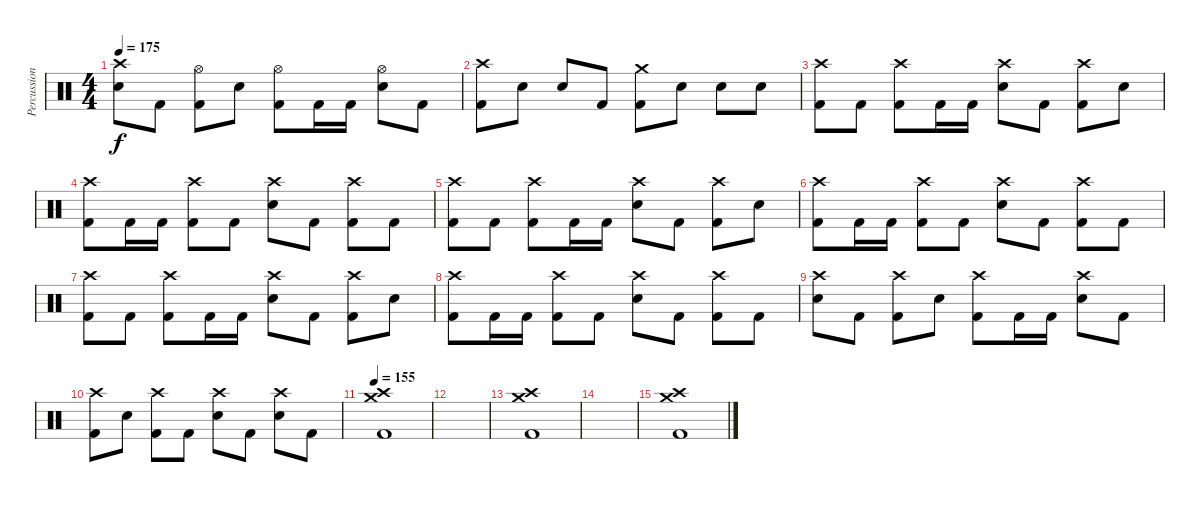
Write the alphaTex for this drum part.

\track ("Percussion" "Percussion") {instrument percussion}
\staff {score}
\articulation defaults
\ts (4 4)
\tempo 175
\clef neutral
\ks c
("Crash high (hit)" "Electric Snare (hit)").8{dy f} "Kick (hit) 2".8 ("Hi-Hat (open)" "Kick (hit) 2").8 "Electric Snare (hit)".8 ("Hi-Hat (open)" "Kick (hit) 2").8 "Kick (hit) 2".16 "Kick (hit) 2".16 ("Hi-Hat (open)" "Electric Snare (hit)").8 "Kick (hit) 2".8 |
("Crash high (hit)" "Kick (hit) 2").8 "Electric Snare (hit)".8 "Electric Snare (hit)".8 "Kick (hit) 2".8 ("Crash medium (hit)" "Kick (hit) 2").8 "Electric Snare (hit)".8 "Electric Snare (hit)".8 "Electric Snare (hit)".8 |
("Crash high (hit)" "Kick (hit) 2").8 "Kick (hit) 2".8 ("Crash high (hit)" "Kick (hit) 2").8 "Kick (hit) 2".16 "Kick (hit) 2".16 ("Crash high (hit)" "Electric Snare (hit)").8 "Kick (hit) 2".8 ("Crash high (hit)" "Kick (hit) 2").8 "Electric Snare (hit)".8 |
("Crash high (hit)" "Kick (hit) 2").8 "Kick (hit) 2".16 "Kick (hit) 2".16 ("Crash high (hit)" "Kick (hit) 2").8 "Kick (hit) 2".8 ("Crash high (hit)" "Electric Snare (hit)").8 "Kick (hit) 2".8 ("Crash high (hit)" "Kick (hit) 2").8 "Kick (hit) 2".8 |
("Crash high (hit)" "Kick (hit) 2").8 "Kick (hit) 2".8 ("Crash high (hit)" "Kick (hit) 2").8 "Kick (hit) 2".16 "Kick (hit) 2".16 ("Crash high (hit)" "Electric Snare (hit)").8 "Kick (hit) 2".8 ("Crash high (hit)" "Kick (hit) 2").8 "Electric Snare (hit)".8 |
("Crash high (hit)" "Kick (hit) 2").8 "Kick (hit) 2".16 "Kick (hit) 2".16 ("Crash high (hit)" "Kick (hit) 2").8 "Kick (hit) 2".8 ("Crash high (hit)" "Electric Snare (hit)").8 "Kick (hit) 2".8 ("Crash high (hit)" "Kick (hit) 2").8 "Kick (hit) 2".8 |
("Crash high (hit)" "Kick (hit) 2").8 "Kick (hit) 2".8 ("Crash high (hit)" "Kick (hit) 2").8 "Kick (hit) 2".16 "Kick (hit) 2".16 ("Crash high (hit)" "Electric Snare (hit)").8 "Kick (hit) 2".8 ("Crash high (hit)" "Kick (hit) 2").8 "Electric Snare (hit)".8 |
("Crash high (hit)" "Kick (hit) 2").8 "Kick (hit) 2".16 "Kick (hit) 2".16 ("Crash high (hit)" "Kick (hit) 2").8 "Kick (hit) 2".8 ("Crash high (hit)" "Electric Snare (hit)").8 "Kick (hit) 2".8 ("Crash high (hit)" "Kick (hit) 2").8 "Kick (hit) 2".8 |
("Crash high (hit)" "Electric Snare (hit)").8 "Kick (hit) 2".8 ("Crash high (hit)" "Kick (hit) 2").8 "Electric Snare (hit)".8 ("Crash high (hit)" "Kick (hit) 2").8 "Kick (hit) 2".16 "Kick (hit) 2".16 ("Crash high (hit)" "Electric Snare (hit)").8 "Kick (hit) 2".8 |
("Crash high (hit)" "Kick (hit) 2").8 "Electric Snare (hit)".8 ("Crash high (hit)" "Kick (hit) 2").8 "Kick (hit) 2".8 ("Crash high (hit)" "Electric Snare (hit)").8 "Kick (hit) 2".8 ("Crash high (hit)" "Electric Snare (hit)").8 "Kick (hit) 2".8 |
\tempo 155
("Crash medium (hit)" "Crash high (hit)" "Kick (hit) 2").1 |
|
("Crash medium (hit)" "Crash high (hit)" "Kick (hit) 2").1 |
|
("Crash medium (hit)" "Crash high (hit)" "Kick (hit) 2").1
